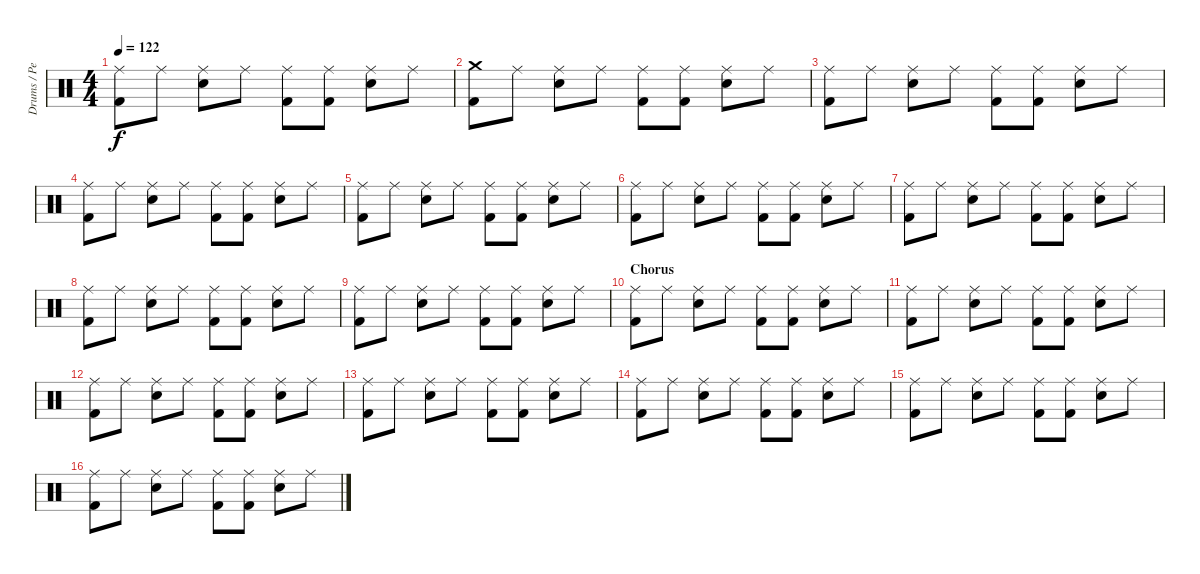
\track ("Drums / Percussion" "Drums / Pe") {instrument percussion}
\staff {score}
\articulation defaults
\ts (4 4)
\tempo 122
\clef neutral
\ks c
("Ride (middle)" "Kick (hit) 2").8{dy f} "Ride (middle)".8 ("Ride (middle)" "Snare (hit) 2").8 "Ride (middle)".8 ("Ride (middle)" "Kick (hit) 2").8 ("Ride (middle)" "Kick (hit) 2").8 ("Ride (middle)" "Snare (hit) 2").8 "Ride (middle)".8 |
("Crash medium (hit)" "Kick (hit) 2").8 "Ride (middle)".8 ("Ride (middle)" "Snare (hit) 2").8 "Ride (middle)".8 ("Ride (middle)" "Kick (hit) 2").8 ("Ride (middle)" "Kick (hit) 2").8 ("Ride (middle)" "Snare (hit) 2").8 "Ride (middle)".8 |
("Ride (middle)" "Kick (hit) 2").8 "Ride (middle)".8 ("Ride (middle)" "Snare (hit) 2").8 "Ride (middle)".8 ("Ride (middle)" "Kick (hit) 2").8 ("Ride (middle)" "Kick (hit) 2").8 ("Ride (middle)" "Snare (hit) 2").8 "Ride (middle)".8 |
("Ride (middle)" "Kick (hit) 2").8 "Ride (middle)".8 ("Ride (middle)" "Snare (hit) 2").8 "Ride (middle)".8 ("Ride (middle)" "Kick (hit) 2").8 ("Ride (middle)" "Kick (hit) 2").8 ("Ride (middle)" "Snare (hit) 2").8 "Ride (middle)".8 |
("Ride (middle)" "Kick (hit) 2").8 "Ride (middle)".8 ("Ride (middle)" "Snare (hit) 2").8 "Ride (middle)".8 ("Ride (middle)" "Kick (hit) 2").8 ("Ride (middle)" "Kick (hit) 2").8 ("Ride (middle)" "Snare (hit) 2").8 "Ride (middle)".8 |
("Ride (middle)" "Kick (hit) 2").8 "Ride (middle)".8 ("Ride (middle)" "Snare (hit) 2").8 "Ride (middle)".8 ("Ride (middle)" "Kick (hit) 2").8 ("Ride (middle)" "Kick (hit) 2").8 ("Ride (middle)" "Snare (hit) 2").8 "Ride (middle)".8 |
("Ride (middle)" "Kick (hit) 2").8 "Ride (middle)".8 ("Ride (middle)" "Snare (hit) 2").8 "Ride (middle)".8 ("Ride (middle)" "Kick (hit) 2").8 ("Ride (middle)" "Kick (hit) 2").8 ("Ride (middle)" "Snare (hit) 2").8 "Ride (middle)".8 |
("Ride (middle)" "Kick (hit) 2").8 "Ride (middle)".8 ("Ride (middle)" "Snare (hit) 2").8 "Ride (middle)".8 ("Ride (middle)" "Kick (hit) 2").8 ("Ride (middle)" "Kick (hit) 2").8 ("Ride (middle)" "Snare (hit) 2").8 "Ride (middle)".8 |
("Ride (middle)" "Kick (hit) 2").8 "Ride (middle)".8 ("Ride (middle)" "Snare (hit) 2").8 "Ride (middle)".8 ("Ride (middle)" "Kick (hit) 2").8 ("Ride (middle)" "Kick (hit) 2").8 ("Ride (middle)" "Snare (hit) 2").8 "Ride (middle)".8 |
\section ("" "Chorus")
("Ride (middle)" "Kick (hit) 2").8 "Ride (middle)".8 ("Ride (middle)" "Snare (hit) 2").8 "Ride (middle)".8 ("Ride (middle)" "Kick (hit) 2").8 ("Ride (middle)" "Kick (hit) 2").8 ("Ride (middle)" "Snare (hit) 2").8 "Ride (middle)".8 |
("Ride (middle)" "Kick (hit) 2").8 "Ride (middle)".8 ("Ride (middle)" "Snare (hit) 2").8 "Ride (middle)".8 ("Ride (middle)" "Kick (hit) 2").8 ("Ride (middle)" "Kick (hit) 2").8 ("Ride (middle)" "Snare (hit) 2").8 "Ride (middle)".8 |
("Ride (middle)" "Kick (hit) 2").8 "Ride (middle)".8 ("Ride (middle)" "Snare (hit) 2").8 "Ride (middle)".8 ("Ride (middle)" "Kick (hit) 2").8 ("Ride (middle)" "Kick (hit) 2").8 ("Ride (middle)" "Snare (hit) 2").8 "Ride (middle)".8 |
("Ride (middle)" "Kick (hit) 2").8 "Ride (middle)".8 ("Ride (middle)" "Snare (hit) 2").8 "Ride (middle)".8 ("Ride (middle)" "Kick (hit) 2").8 ("Ride (middle)" "Kick (hit) 2").8 ("Ride (middle)" "Snare (hit) 2").8 "Ride (middle)".8 |
("Ride (middle)" "Kick (hit) 2").8 "Ride (middle)".8 ("Ride (middle)" "Snare (hit) 2").8 "Ride (middle)".8 ("Ride (middle)" "Kick (hit) 2").8 ("Ride (middle)" "Kick (hit) 2").8 ("Ride (middle)" "Snare (hit) 2").8 "Ride (middle)".8 |
("Ride (middle)" "Kick (hit) 2").8 "Ride (middle)".8 ("Ride (middle)" "Snare (hit) 2").8 "Ride (middle)".8 ("Ride (middle)" "Kick (hit) 2").8 ("Ride (middle)" "Kick (hit) 2").8 ("Ride (middle)" "Snare (hit) 2").8 "Ride (middle)".8 |
("Ride (middle)" "Kick (hit) 2").8 "Ride (middle)".8 ("Ride (middle)" "Snare (hit) 2").8 "Ride (middle)".8 ("Ride (middle)" "Kick (hit) 2").8 ("Ride (middle)" "Kick (hit) 2").8 ("Ride (middle)" "Snare (hit) 2").8 "Ride (middle)".8
